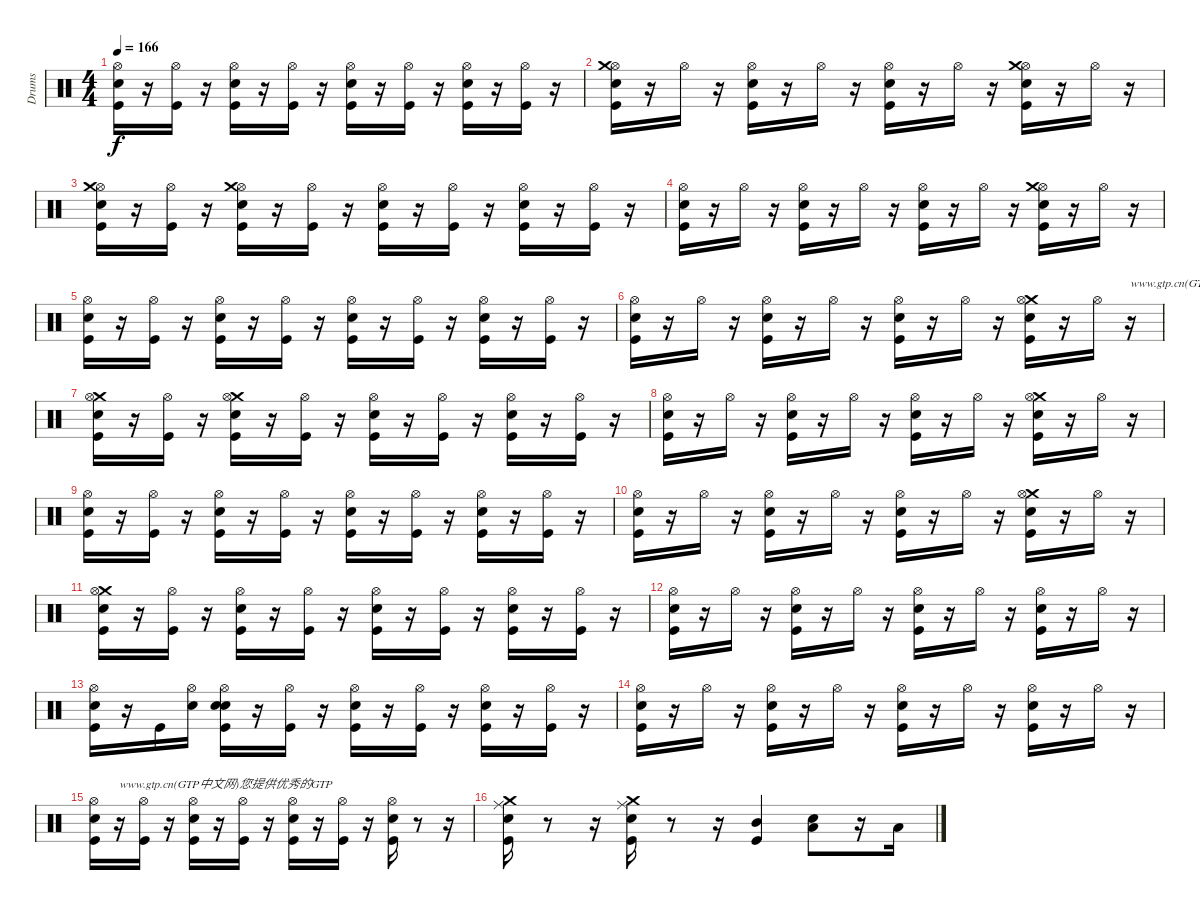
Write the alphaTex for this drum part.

\track ("Drums" "Drums") {instrument percussion}
\staff {score}
\articulation defaults
\ts (4 4)
\tempo 166
\clef neutral
\ks c
("Kick (hit)" "Electric Snare (hit)" "Hi-Hat (open)").16{dy f} r.16 ("Kick (hit)" "Hi-Hat (open)").16 r.16 ("Kick (hit)" "Hi-Hat (open)" "Electric Snare (hit)").16 r.16 ("Hi-Hat (open)" "Kick (hit)").16 r.16 ("Kick (hit)" "Hi-Hat (open)" "Electric Snare (hit)").16 r.16 ("Hi-Hat (open)" "Kick (hit)").16 r.16 ("Kick (hit)" "Hi-Hat (open)" "Electric Snare (hit)").16 r.16 ("Kick (hit)" "Hi-Hat (open)").16 r.16 |
("Kick (hit)" "Electric Snare (hit)" "Hi-Hat (open)" "Crash medium (hit)").16 r.16 "Hi-Hat (open)".16 r.16 ("Kick (hit)" "Hi-Hat (open)" "Electric Snare (hit)").16 r.16 "Hi-Hat (open)".16 r.16 ("Kick (hit)" "Hi-Hat (open)" "Electric Snare (hit)").16 r.16 "Hi-Hat (open)".16 r.16 ("Kick (hit)" "Hi-Hat (open)" "Electric Snare (hit)" "Crash medium (hit)").16 r.16 "Hi-Hat (open)".16 r.16 |
("Kick (hit)" "Electric Snare (hit)" "Hi-Hat (open)" "Crash medium (hit)").16 r.16 ("Kick (hit)" "Hi-Hat (open)").16 r.16 ("Kick (hit)" "Hi-Hat (open)" "Electric Snare (hit)" "Crash medium (hit)").16 r.16 ("Hi-Hat (open)" "Kick (hit)").16 r.16 ("Kick (hit)" "Hi-Hat (open)" "Electric Snare (hit)").16 r.16 ("Hi-Hat (open)" "Kick (hit)").16 r.16 ("Kick (hit)" "Hi-Hat (open)" "Electric Snare (hit)").16 r.16 ("Kick (hit)" "Hi-Hat (open)").16 r.16 |
("Kick (hit)" "Electric Snare (hit)" "Hi-Hat (open)").16 r.16 "Hi-Hat (open)".16 r.16 ("Kick (hit)" "Hi-Hat (open)" "Electric Snare (hit)").16 r.16 "Hi-Hat (open)".16 r.16 ("Kick (hit)" "Hi-Hat (open)" "Electric Snare (hit)").16 r.16 "Hi-Hat (open)".16 r.16 ("Kick (hit)" "Hi-Hat (open)" "Electric Snare (hit)" "Crash medium (hit)").16 r.16 "Hi-Hat (open)".16 r.16 |
("Kick (hit)" "Electric Snare (hit)" "Hi-Hat (open)").16 r.16 ("Kick (hit)" "Hi-Hat (open)").16 r.16 ("Kick (hit)" "Hi-Hat (open)" "Electric Snare (hit)").16 r.16 ("Hi-Hat (open)" "Kick (hit)").16 r.16 ("Kick (hit)" "Hi-Hat (open)" "Electric Snare (hit)").16 r.16 ("Hi-Hat (open)" "Kick (hit)").16 r.16 ("Kick (hit)" "Hi-Hat (open)" "Electric Snare (hit)").16 r.16 ("Kick (hit)" "Hi-Hat (open)").16 r.16 |
("Kick (hit)" "Electric Snare (hit)" "Hi-Hat (open)").16 r.16 "Hi-Hat (open)".16 r.16 ("Kick (hit)" "Electric Snare (hit)" "Hi-Hat (open)").16 r.16 "Hi-Hat (open)".16 r.16 ("Electric Snare (hit)" "Kick (hit)" "Hi-Hat (open)").16 r.16 "Hi-Hat (open)".16 r.16 ("Kick (hit)" "Electric Snare (hit)" "Crash medium (hit)" "Hi-Hat (open)").16 r.16 "Hi-Hat (open)".16 r.16{txt "www.gtp.cn(GTP中文网)您提供优秀的GTP"} |
("Kick (hit)" "Electric Snare (hit)" "Crash medium (hit)" "Hi-Hat (open)").16 r.16 ("Kick (hit)" "Hi-Hat (open)").16 r.16 ("Kick (hit)" "Electric Snare (hit)" "Crash medium (hit)" "Hi-Hat (open)").16 r.16 ("Kick (hit)" "Hi-Hat (open)").16 r.16 ("Kick (hit)" "Electric Snare (hit)" "Hi-Hat (open)").16 r.16 ("Kick (hit)" "Hi-Hat (open)").16 r.16 ("Kick (hit)" "Electric Snare (hit)" "Hi-Hat (open)").16 r.16 ("Kick (hit)" "Hi-Hat (open)").16 r.16 |
("Kick (hit)" "Electric Snare (hit)" "Hi-Hat (open)").16 r.16 "Hi-Hat (open)".16 r.16 ("Kick (hit)" "Electric Snare (hit)" "Hi-Hat (open)").16 r.16 "Hi-Hat (open)".16 r.16 ("Electric Snare (hit)" "Kick (hit)" "Hi-Hat (open)").16 r.16 "Hi-Hat (open)".16 r.16 ("Kick (hit)" "Electric Snare (hit)" "Crash medium (hit)" "Hi-Hat (open)").16 r.16 "Hi-Hat (open)".16 r.16 |
("Kick (hit)" "Electric Snare (hit)" "Hi-Hat (open)").16 r.16 ("Kick (hit)" "Hi-Hat (open)").16 r.16 ("Kick (hit)" "Electric Snare (hit)" "Hi-Hat (open)").16 r.16 ("Kick (hit)" "Hi-Hat (open)").16 r.16 ("Kick (hit)" "Electric Snare (hit)" "Hi-Hat (open)").16 r.16 ("Kick (hit)" "Hi-Hat (open)").16 r.16 ("Kick (hit)" "Electric Snare (hit)" "Hi-Hat (open)").16 r.16 ("Kick (hit)" "Hi-Hat (open)").16 r.16 |
("Kick (hit)" "Electric Snare (hit)" "Hi-Hat (open)").16 r.16 "Hi-Hat (open)".16 r.16 ("Kick (hit)" "Electric Snare (hit)" "Hi-Hat (open)").16 r.16 "Hi-Hat (open)".16 r.16 ("Electric Snare (hit)" "Kick (hit)" "Hi-Hat (open)").16 r.16 "Hi-Hat (open)".16 r.16 ("Kick (hit)" "Electric Snare (hit)" "Crash medium (hit)" "Hi-Hat (open)").16 r.16 "Hi-Hat (open)".16 r.16 |
("Kick (hit)" "Crash medium (hit)" "Electric Snare (hit)" "Hi-Hat (open)").16 r.16 ("Kick (hit)" "Hi-Hat (open)").16 r.16 ("Kick (hit)" "Electric Snare (hit)" "Hi-Hat (open)").16 r.16 ("Kick (hit)" "Hi-Hat (open)").16 r.16 ("Kick (hit)" "Electric Snare (hit)" "Hi-Hat (open)").16 r.16 ("Kick (hit)" "Hi-Hat (open)").16 r.16 ("Kick (hit)" "Electric Snare (hit)" "Hi-Hat (open)").16 r.16 ("Kick (hit)" "Hi-Hat (open)").16 r.16 |
("Kick (hit)" "Electric Snare (hit)" "Hi-Hat (open)").16 r.16 "Hi-Hat (open)".16 r.16 ("Kick (hit)" "Electric Snare (hit)" "Hi-Hat (open)").16 r.16 "Hi-Hat (open)".16 r.16 ("Electric Snare (hit)" "Kick (hit)" "Hi-Hat (open)").16 r.16 "Hi-Hat (open)".16 r.16 ("Kick (hit)" "Electric Snare (hit)" "Hi-Hat (open)").16 r.16 "Hi-Hat (open)".16 r.16 |
("Kick (hit)" "Electric Snare (hit)" "Hi-Hat (open)").16 r.16 "Kick (hit)".16 ("Snare (hit)" "Hi-Hat (open)").16 ("Snare (hit)" "Kick (hit)" "Electric Snare (hit)" "Hi-Hat (open)").16 r.16 ("Kick (hit)" "Hi-Hat (open)").16 r.16 ("Kick (hit)" "Electric Snare (hit)" "Hi-Hat (open)").16 r.16 ("Kick (hit)" "Hi-Hat (open)").16 r.16 ("Kick (hit)" "Electric Snare (hit)" "Hi-Hat (open)").16 r.16 ("Kick (hit)" "Hi-Hat (open)").16 r.16 |
("Kick (hit)" "Electric Snare (hit)" "Hi-Hat (open)").16 r.16 "Hi-Hat (open)".16 r.16 ("Kick (hit)" "Electric Snare (hit)" "Hi-Hat (open)").16 r.16 "Hi-Hat (open)".16 r.16 ("Electric Snare (hit)" "Kick (hit)" "Hi-Hat (open)").16 r.16 "Hi-Hat (open)".16 r.16 ("Kick (hit)" "Electric Snare (hit)" "Hi-Hat (open)").16 r.16 "Hi-Hat (open)".16 r.16 |
("Kick (hit)" "Electric Snare (hit)" "Hi-Hat (open)").16 r.16{txt "www.gtp.cn(GTP中文网)您提供优秀的GTP"} ("Kick (hit)" "Hi-Hat (open)").16 r.16 ("Kick (hit)" "Electric Snare (hit)" "Hi-Hat (open)").16 r.16 ("Kick (hit)" "Hi-Hat (open)").16 r.16 ("Kick (hit)" "Electric Snare (hit)" "Hi-Hat (open)").16 r.16 ("Kick (hit)" "Hi-Hat (open)").16 r.16 ("Kick (hit)" "Electric Snare (hit)" "Hi-Hat (open)").16 r.8 r.16 |
("Ride (middle)" "Crash medium (hit)" "Kick (hit)" "Electric Snare (hit)").16 r.8 r.16 ("Kick (hit)" "Crash medium (hit)" "Electric Snare (hit)" "Ride (middle)").16 r.8 r.16 ("Kick (hit)" "Mid Tom (hit)").4 ("Snare (hit)" "Low Tom (hit)").8 r.16 "Low Tom (hit)".16
